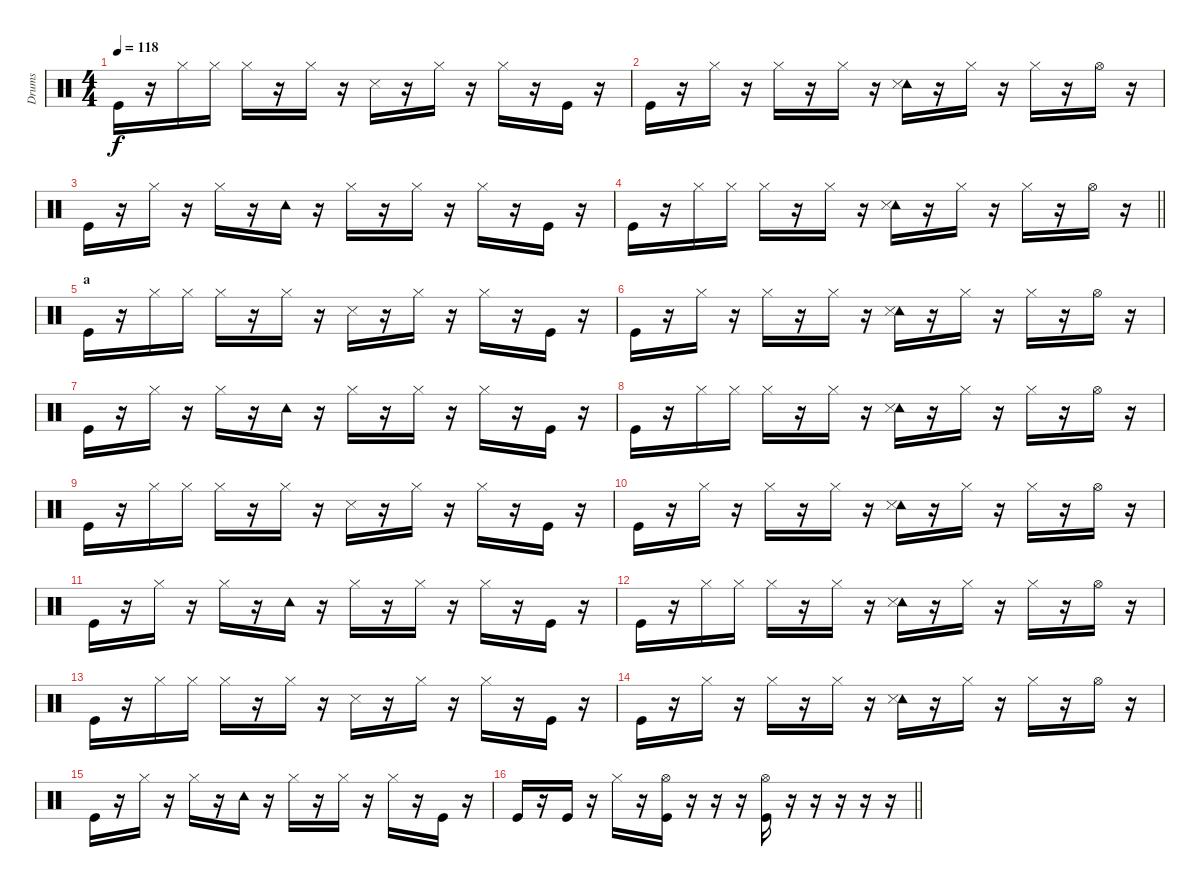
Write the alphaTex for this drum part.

\track ("Drums" "Drums") {instrument percussion}
\staff {score}
\articulation defaults
\ts (4 4)
\tempo 118
\clef neutral
\ks c "Kick (hit)".16{dy f}
r.16 "Hi-Hat (closed)".16 "Hi-Hat (closed)".16 "Hi-Hat (closed)".16 r.16 "Hi-Hat (closed)".16 r.16 "Snare (side stick) 3".16 r.16 "Hi-Hat (closed)".16 r.16 "Hi-Hat (closed)".16 r.16 "Kick (hit)".16 r.16 |
"Kick (hit)".16 r.16 "Hi-Hat (closed)".16 r.16 "Hi-Hat (closed)".16 r.16 "Hi-Hat (closed)".16 r.16 ("Tambourine (hit)" "Snare (side stick) 3").16 r.16 "Hi-Hat (closed)".16 r.16 "Hi-Hat (closed)".16 r.16 "Hi-Hat (open)".16 r.16 |
"Kick (hit)".16 r.16 "Hi-Hat (closed)".16 r.16 "Hi-Hat (closed)".16 r.16 "Tambourine (hit)".16 r.16 "Hi-Hat (closed)".16 r.16 "Hi-Hat (closed)".16 r.16 "Hi-Hat (closed)".16 r.16 "Kick (hit)".16 r.16 |
\barLineRight lightlight "Kick (hit)".16
r.16 "Hi-Hat (closed)".16 "Hi-Hat (closed)".16 "Hi-Hat (closed)".16 r.16 "Hi-Hat (closed)".16 r.16 ("Tambourine (hit)" "Snare (side stick) 3").16 r.16 "Hi-Hat (closed)".16 r.16 "Hi-Hat (closed)".16 r.16 "Hi-Hat (open)".16 r.16 |
\section ("" "a")
"Kick (hit)".16 r.16 "Hi-Hat (closed)".16 "Hi-Hat (closed)".16 "Hi-Hat (closed)".16 r.16 "Hi-Hat (closed)".16 r.16 "Snare (side stick) 3".16 r.16 "Hi-Hat (closed)".16 r.16 "Hi-Hat (closed)".16 r.16 "Kick (hit)".16 r.16 |
"Kick (hit)".16 r.16 "Hi-Hat (closed)".16 r.16 "Hi-Hat (closed)".16 r.16 "Hi-Hat (closed)".16 r.16 ("Tambourine (hit)" "Snare (side stick) 3").16 r.16 "Hi-Hat (closed)".16 r.16 "Hi-Hat (closed)".16 r.16 "Hi-Hat (open)".16 r.16 |
"Kick (hit)".16 r.16 "Hi-Hat (closed)".16 r.16 "Hi-Hat (closed)".16 r.16 "Tambourine (hit)".16 r.16 "Hi-Hat (closed)".16 r.16 "Hi-Hat (closed)".16 r.16 "Hi-Hat (closed)".16 r.16 "Kick (hit)".16 r.16 |
"Kick (hit)".16 r.16 "Hi-Hat (closed)".16 "Hi-Hat (closed)".16 "Hi-Hat (closed)".16 r.16 "Hi-Hat (closed)".16 r.16 ("Tambourine (hit)" "Snare (side stick) 3").16 r.16 "Hi-Hat (closed)".16 r.16 "Hi-Hat (closed)".16 r.16 "Hi-Hat (open)".16 r.16 |
"Kick (hit)".16 r.16 "Hi-Hat (closed)".16 "Hi-Hat (closed)".16 "Hi-Hat (closed)".16 r.16 "Hi-Hat (closed)".16 r.16 "Snare (side stick) 3".16 r.16 "Hi-Hat (closed)".16 r.16 "Hi-Hat (closed)".16 r.16 "Kick (hit)".16 r.16 |
"Kick (hit)".16 r.16 "Hi-Hat (closed)".16 r.16 "Hi-Hat (closed)".16 r.16 "Hi-Hat (closed)".16 r.16 ("Tambourine (hit)" "Snare (side stick) 3").16 r.16 "Hi-Hat (closed)".16 r.16 "Hi-Hat (closed)".16 r.16 "Hi-Hat (open)".16 r.16 |
"Kick (hit)".16 r.16 "Hi-Hat (closed)".16 r.16 "Hi-Hat (closed)".16 r.16 "Tambourine (hit)".16 r.16 "Hi-Hat (closed)".16 r.16 "Hi-Hat (closed)".16 r.16 "Hi-Hat (closed)".16 r.16 "Kick (hit)".16 r.16 |
"Kick (hit)".16 r.16 "Hi-Hat (closed)".16 "Hi-Hat (closed)".16 "Hi-Hat (closed)".16 r.16 "Hi-Hat (closed)".16 r.16 ("Tambourine (hit)" "Snare (side stick) 3").16 r.16 "Hi-Hat (closed)".16 r.16 "Hi-Hat (closed)".16 r.16 "Hi-Hat (open)".16 r.16 |
"Kick (hit)".16 r.16 "Hi-Hat (closed)".16 "Hi-Hat (closed)".16 "Hi-Hat (closed)".16 r.16 "Hi-Hat (closed)".16 r.16 "Snare (side stick) 3".16 r.16 "Hi-Hat (closed)".16 r.16 "Hi-Hat (closed)".16 r.16 "Kick (hit)".16 r.16 |
"Kick (hit)".16 r.16 "Hi-Hat (closed)".16 r.16 "Hi-Hat (closed)".16 r.16 "Hi-Hat (closed)".16 r.16 ("Tambourine (hit)" "Snare (side stick) 3").16 r.16 "Hi-Hat (closed)".16 r.16 "Hi-Hat (closed)".16 r.16 "Hi-Hat (open)".16 r.16 |
"Kick (hit)".16 r.16 "Hi-Hat (closed)".16 r.16 "Hi-Hat (closed)".16 r.16 "Tambourine (hit)".16 r.16 "Hi-Hat (closed)".16 r.16 "Hi-Hat (closed)".16 r.16 "Hi-Hat (closed)".16 r.16 "Kick (hit)".16 r.16 |
\barLineRight lightlight "Kick (hit)".16
r.16 "Kick (hit)".16 r.16 "Hi-Hat (closed)".16 r.16 ("Kick (hit)" "Hi-Hat (open)").16 r.16 r.16 r.16 ("Kick (hit)" "Hi-Hat (open)").16 r.16 r.16 r.16 r.16 r.16
